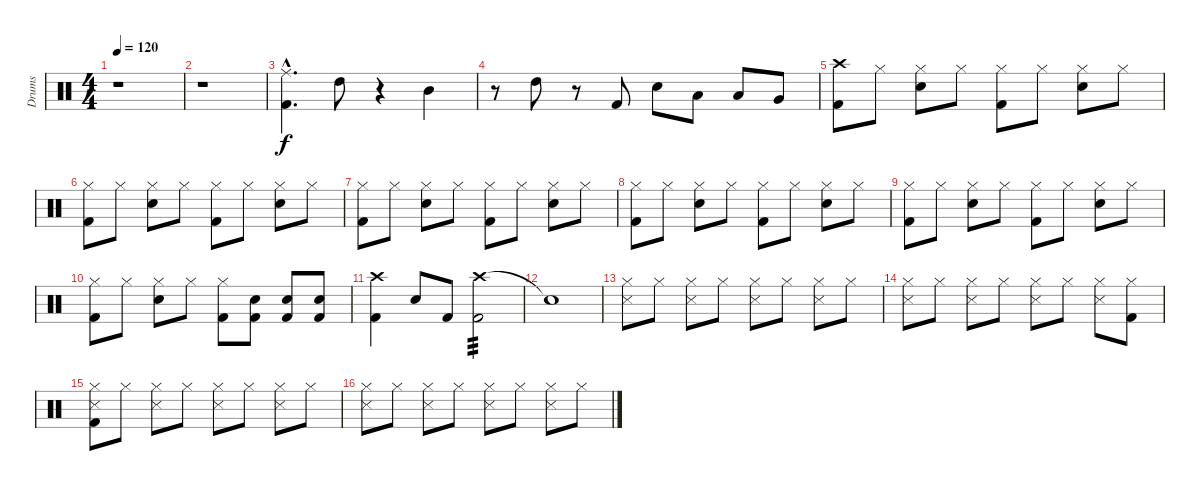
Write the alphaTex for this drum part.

\track ("Drums" "Drums") {instrument percussion}
\staff {score}
\articulation defaults
\ts (4 4)
\tempo 120
\clef neutral
\ks c
r.1{dy f} |
r.1 |
("Ride (middle)"{hac} "Kick (hit) 2"{hac}).4{d} "High Tom (hit)".8 r.4 "Mid Tom (hit)".4 |
r.8 "High Tom (hit)".8 r.8 "Kick (hit) 2".8 "Electric Snare (hit)".8 "Low Tom (hit)".8 "Low Tom (hit)".8 "Very Low Tom (hit)".8 |
("Crash high (hit)" "Kick (hit) 2").8 "Hi-Hat (closed)".8 ("Hi-Hat (closed)" "Electric Snare (hit)").8 "Hi-Hat (closed)".8 ("Hi-Hat (closed)" "Kick (hit) 2").8 "Hi-Hat (closed)".8 ("Hi-Hat (closed)" "Electric Snare (hit)").8 "Hi-Hat (closed)".8 |
("Hi-Hat (closed)" "Kick (hit) 2").8 "Hi-Hat (closed)".8 ("Hi-Hat (closed)" "Electric Snare (hit)").8 "Hi-Hat (closed)".8 ("Hi-Hat (closed)" "Kick (hit) 2").8 "Hi-Hat (closed)".8 ("Hi-Hat (closed)" "Electric Snare (hit)").8 "Hi-Hat (closed)".8 |
("Hi-Hat (closed)" "Kick (hit) 2").8 "Hi-Hat (closed)".8 ("Hi-Hat (closed)" "Electric Snare (hit)").8 "Hi-Hat (closed)".8 ("Hi-Hat (closed)" "Kick (hit) 2").8 "Hi-Hat (closed)".8 ("Hi-Hat (closed)" "Electric Snare (hit)").8 "Hi-Hat (closed)".8 |
("Hi-Hat (closed)" "Kick (hit) 2").8 "Hi-Hat (closed)".8 ("Hi-Hat (closed)" "Electric Snare (hit)").8 "Hi-Hat (closed)".8 ("Hi-Hat (closed)" "Kick (hit) 2").8 "Hi-Hat (closed)".8 ("Hi-Hat (closed)" "Electric Snare (hit)").8 "Hi-Hat (closed)".8 |
("Hi-Hat (closed)" "Kick (hit) 2").8 "Hi-Hat (closed)".8 ("Hi-Hat (closed)" "Electric Snare (hit)").8 "Hi-Hat (closed)".8 ("Hi-Hat (closed)" "Kick (hit) 2").8 "Hi-Hat (closed)".8 ("Hi-Hat (closed)" "Electric Snare (hit)").8 "Hi-Hat (closed)".8 |
("Hi-Hat (closed)" "Kick (hit) 2").8 "Hi-Hat (closed)".8 ("Hi-Hat (closed)" "Electric Snare (hit)").8 "Hi-Hat (closed)".8 ("Hi-Hat (closed)" "Kick (hit) 2").8 ("Electric Snare (hit)" "Kick (hit) 2").8 ("Electric Snare (hit)" "Kick (hit) 2").8 ("Electric Snare (hit)" "Kick (hit) 2").8 |
("Crash high (hit)" "Kick (hit) 2").4 "Electric Snare (hit)".8 "Kick (hit) 2".8 ("Crash high (hit)" "Kick (hit) 2").2{tp 3} |
"Snare (hit)"{t}.1 |
("Hi-Hat (closed)" "Metronome (hit)").8 "Hi-Hat (closed)".8 ("Hi-Hat (closed)" "Metronome (hit)").8 "Hi-Hat (closed)".8 ("Hi-Hat (closed)" "Metronome (hit)").8 "Hi-Hat (closed)".8 ("Hi-Hat (closed)" "Metronome (hit)").8 "Hi-Hat (closed)".8 |
("Hi-Hat (closed)" "Metronome (hit)").8 "Hi-Hat (closed)".8 ("Hi-Hat (closed)" "Metronome (hit)").8 "Hi-Hat (closed)".8 ("Hi-Hat (closed)" "Metronome (hit)").8 "Hi-Hat (closed)".8 ("Hi-Hat (closed)" "Metronome (hit)").8 ("Hi-Hat (closed)" "Kick (hit) 2").8 |
("Hi-Hat (closed)" "Metronome (hit)" "Kick (hit) 2").8 "Hi-Hat (closed)".8 ("Hi-Hat (closed)" "Metronome (hit)").8 "Hi-Hat (closed)".8 ("Hi-Hat (closed)" "Metronome (hit)").8 "Hi-Hat (closed)".8 ("Hi-Hat (closed)" "Metronome (hit)").8 "Hi-Hat (closed)".8 |
("Hi-Hat (closed)" "Metronome (hit)").8 "Hi-Hat (closed)".8 ("Hi-Hat (closed)" "Metronome (hit)").8 "Hi-Hat (closed)".8 ("Hi-Hat (closed)" "Metronome (hit)").8 "Hi-Hat (closed)".8 ("Hi-Hat (closed)" "Metronome (hit)").8 "Hi-Hat (closed)".8
